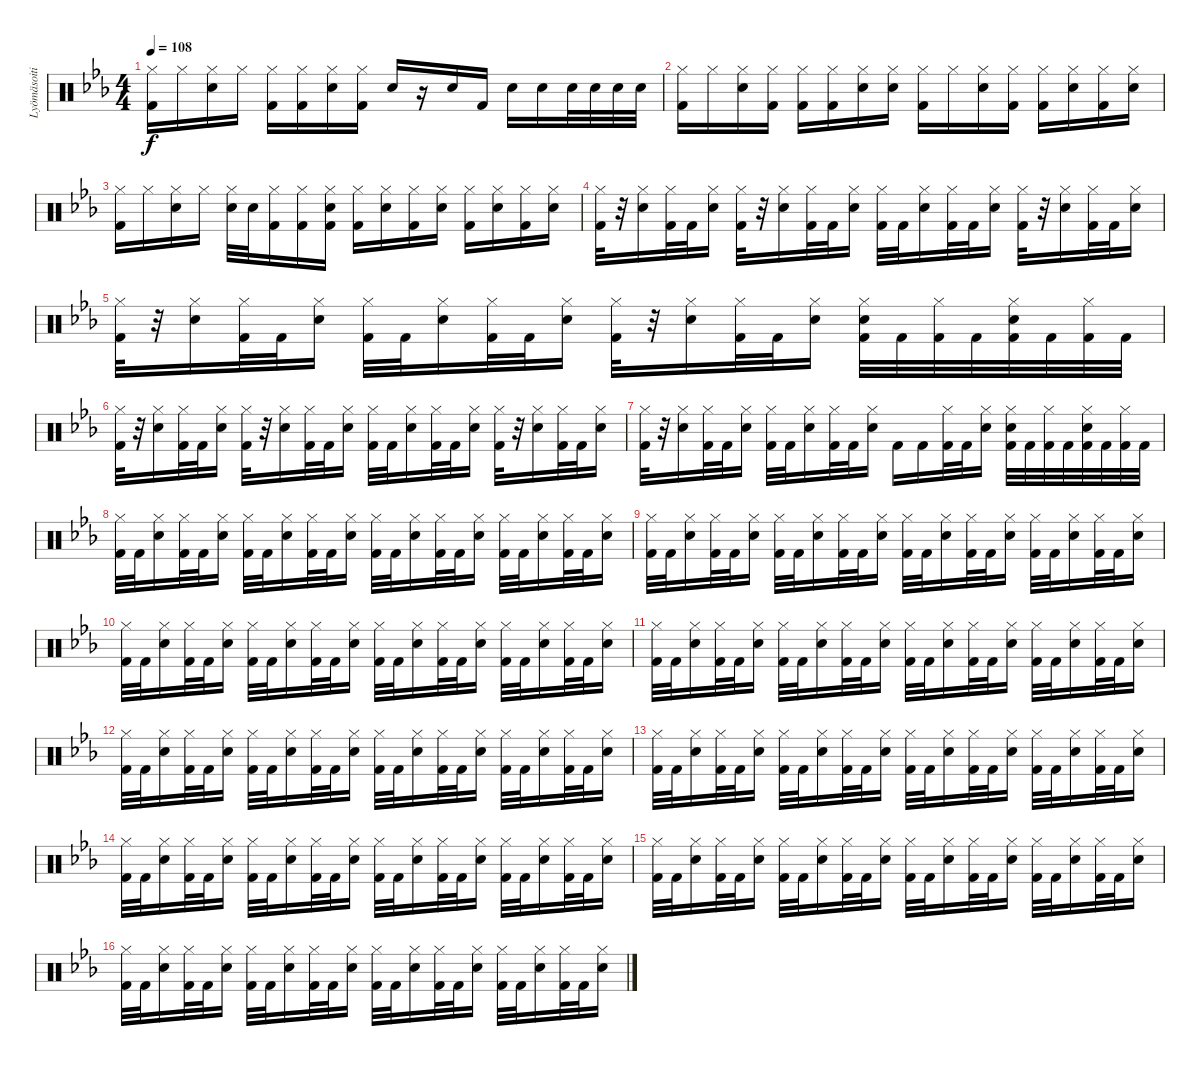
\track ("Lyömäsoitin" "Lyömäsoiti") {instrument percussion}
\staff {score}
\articulation defaults
\ts (4 4)
\tempo 108
\clef neutral
\ks cminor
("Hi-Hat (closed)" "Kick (hit) 2").16{dy f} "Hi-Hat (closed)".16 ("Hi-Hat (closed)" "Electric Snare (hit)").16 "Hi-Hat (closed)".16 ("Hi-Hat (closed)" "Kick (hit) 2").16 ("Hi-Hat (closed)" "Kick (hit) 2").16 ("Hi-Hat (closed)" "Electric Snare (hit)").16 ("Hi-Hat (closed)" "Kick (hit) 2").16 "Electric Snare (hit)".16 r.16 "Electric Snare (hit)".16 "Kick (hit) 2".16 "Electric Snare (hit)".16 "Electric Snare (hit)".16 "Electric Snare (hit)".32 "Electric Snare (hit)".32 "Electric Snare (hit)".32 "Electric Snare (hit)".32 |
("Hi-Hat (closed)" "Kick (hit) 2").16 "Hi-Hat (closed)".16 ("Hi-Hat (closed)" "Electric Snare (hit)").16 ("Hi-Hat (closed)" "Kick (hit) 2").16 ("Hi-Hat (closed)" "Kick (hit) 2").16 ("Hi-Hat (closed)" "Kick (hit) 2").16 ("Hi-Hat (closed)" "Electric Snare (hit)").16 ("Hi-Hat (closed)" "Electric Snare (hit)").16 ("Hi-Hat (closed)" "Kick (hit) 2").16 "Hi-Hat (closed)".16 ("Hi-Hat (closed)" "Electric Snare (hit)").16 ("Hi-Hat (closed)" "Kick (hit) 2").16 ("Hi-Hat (closed)" "Kick (hit) 2").16 ("Hi-Hat (closed)" "Electric Snare (hit)").16 ("Hi-Hat (closed)" "Kick (hit) 2").16 ("Hi-Hat (closed)" "Electric Snare (hit)").16 |
("Hi-Hat (closed)" "Kick (hit) 2").16 "Hi-Hat (closed)".16 ("Hi-Hat (closed)" "Electric Snare (hit)").16 "Hi-Hat (closed)".16 ("Hi-Hat (closed)" "Electric Snare (hit)").32 "Electric Snare (hit)".32 ("Hi-Hat (closed)" "Kick (hit) 2").16 ("Hi-Hat (closed)" "Kick (hit) 2").16 ("Hi-Hat (closed)" "Electric Snare (hit)" "Kick (hit) 2").16 ("Hi-Hat (closed)" "Kick (hit) 2").16 ("Hi-Hat (closed)" "Electric Snare (hit)").16 ("Hi-Hat (closed)" "Kick (hit) 2").16 ("Hi-Hat (closed)" "Electric Snare (hit)").16 ("Hi-Hat (closed)" "Kick (hit) 2").16 ("Hi-Hat (closed)" "Electric Snare (hit)").16 ("Hi-Hat (closed)" "Kick (hit) 2").16 ("Hi-Hat (closed)" "Electric Snare (hit)").16 |
("Hi-Hat (closed)" "Kick (hit) 2").32 r.32 ("Hi-Hat (closed)" "Electric Snare (hit)").16 ("Hi-Hat (closed)" "Kick (hit) 2").32 "Kick (hit) 2".32 ("Hi-Hat (closed)" "Electric Snare (hit)").16 ("Hi-Hat (closed)" "Kick (hit) 2").32 r.32 ("Hi-Hat (closed)" "Electric Snare (hit)").16 ("Hi-Hat (closed)" "Kick (hit) 2").32 "Kick (hit) 2".32 ("Hi-Hat (closed)" "Electric Snare (hit)").16 ("Hi-Hat (closed)" "Kick (hit) 2").32 "Kick (hit) 2".32 ("Hi-Hat (closed)" "Electric Snare (hit)").16 ("Hi-Hat (closed)" "Kick (hit) 2").32 "Kick (hit) 2".32 ("Hi-Hat (closed)" "Electric Snare (hit)").16 ("Hi-Hat (closed)" "Kick (hit) 2").32 r.32 ("Hi-Hat (closed)" "Electric Snare (hit)").16 ("Hi-Hat (closed)" "Kick (hit) 2").32 "Kick (hit) 2".32 ("Hi-Hat (closed)" "Electric Snare (hit)").16 |
("Hi-Hat (closed)" "Kick (hit) 2").32 r.32 ("Hi-Hat (closed)" "Electric Snare (hit)").16 ("Hi-Hat (closed)" "Kick (hit) 2").32 "Kick (hit) 2".32 ("Hi-Hat (closed)" "Electric Snare (hit)").16 ("Hi-Hat (closed)" "Kick (hit) 2").32 "Kick (hit) 2".32 ("Hi-Hat (closed)" "Electric Snare (hit)").16 ("Hi-Hat (closed)" "Kick (hit) 2").32 "Kick (hit) 2".32 ("Hi-Hat (closed)" "Electric Snare (hit)").16 ("Hi-Hat (closed)" "Kick (hit) 2").32 r.32 ("Hi-Hat (closed)" "Electric Snare (hit)").16 ("Hi-Hat (closed)" "Kick (hit) 2").32 "Kick (hit) 2".32 ("Hi-Hat (closed)" "Electric Snare (hit)").16 ("Hi-Hat (closed)" "Electric Snare (hit)" "Kick (hit) 2").32 "Kick (hit) 2".32 ("Hi-Hat (closed)" "Kick (hit) 2").32 "Kick (hit) 2".32 ("Hi-Hat (closed)" "Electric Snare (hit)" "Kick (hit) 2").32 "Kick (hit) 2".32 ("Hi-Hat (closed)" "Kick (hit) 2").32 "Kick (hit) 2".32 |
("Hi-Hat (closed)" "Kick (hit) 2").32 r.32 ("Hi-Hat (closed)" "Electric Snare (hit)").16 ("Hi-Hat (closed)" "Kick (hit) 2").32 "Kick (hit) 2".32 ("Hi-Hat (closed)" "Electric Snare (hit)").16 ("Hi-Hat (closed)" "Kick (hit) 2").32 r.32 ("Hi-Hat (closed)" "Electric Snare (hit)").16 ("Hi-Hat (closed)" "Kick (hit) 2").32 "Kick (hit) 2".32 ("Hi-Hat (closed)" "Electric Snare (hit)").16 ("Hi-Hat (closed)" "Kick (hit) 2").32 "Kick (hit) 2".32 ("Hi-Hat (closed)" "Electric Snare (hit)").16 ("Hi-Hat (closed)" "Kick (hit) 2").32 "Kick (hit) 2".32 ("Hi-Hat (closed)" "Electric Snare (hit)").16 ("Hi-Hat (closed)" "Kick (hit) 2").32 r.32 ("Hi-Hat (closed)" "Electric Snare (hit)").16 ("Hi-Hat (closed)" "Kick (hit) 2").32 "Kick (hit) 2".32 ("Hi-Hat (closed)" "Electric Snare (hit)").16 |
("Hi-Hat (closed)" "Kick (hit) 2").32 r.32 ("Hi-Hat (closed)" "Electric Snare (hit)").16 ("Hi-Hat (closed)" "Kick (hit) 2").32 "Kick (hit) 2".32 ("Hi-Hat (closed)" "Electric Snare (hit)").16 ("Hi-Hat (closed)" "Kick (hit) 2").32 "Kick (hit) 2".32 ("Hi-Hat (closed)" "Electric Snare (hit)").16 ("Hi-Hat (closed)" "Kick (hit) 2").32 "Kick (hit) 2".32 ("Hi-Hat (closed)" "Electric Snare (hit)").16 "Kick (hit) 2".16 "Kick (hit) 2".16 ("Hi-Hat (closed)" "Kick (hit) 2").32 "Kick (hit) 2".32 ("Hi-Hat (closed)" "Electric Snare (hit)").16 ("Hi-Hat (closed)" "Electric Snare (hit)" "Kick (hit) 2").32 "Kick (hit) 2".32 ("Hi-Hat (closed)" "Kick (hit) 2").32 "Kick (hit) 2".32 ("Hi-Hat (closed)" "Electric Snare (hit)" "Kick (hit) 2").32 "Kick (hit) 2".32 ("Hi-Hat (closed)" "Kick (hit) 2").32 "Kick (hit) 2".32 |
("Hi-Hat (closed)" "Kick (hit) 2").32 "Kick (hit) 2".32 ("Hi-Hat (closed)" "Electric Snare (hit)").16 ("Hi-Hat (closed)" "Kick (hit) 2").32 "Kick (hit) 2".32 ("Hi-Hat (closed)" "Electric Snare (hit)").16 ("Hi-Hat (closed)" "Kick (hit) 2").32 "Kick (hit) 2".32 ("Hi-Hat (closed)" "Electric Snare (hit)").16 ("Hi-Hat (closed)" "Kick (hit) 2").32 "Kick (hit) 2".32 ("Hi-Hat (closed)" "Electric Snare (hit)").16 ("Hi-Hat (closed)" "Kick (hit) 2").32 "Kick (hit) 2".32 ("Hi-Hat (closed)" "Electric Snare (hit)").16 ("Hi-Hat (closed)" "Kick (hit) 2").32 "Kick (hit) 2".32 ("Hi-Hat (closed)" "Electric Snare (hit)").16 ("Hi-Hat (closed)" "Kick (hit) 2").32 "Kick (hit) 2".32 ("Hi-Hat (closed)" "Electric Snare (hit)").16 ("Hi-Hat (closed)" "Kick (hit) 2").32 "Kick (hit) 2".32 ("Hi-Hat (closed)" "Electric Snare (hit)").16 |
("Hi-Hat (closed)" "Kick (hit) 2").32 "Kick (hit) 2".32 ("Hi-Hat (closed)" "Electric Snare (hit)").16 ("Hi-Hat (closed)" "Kick (hit) 2").32 "Kick (hit) 2".32 ("Hi-Hat (closed)" "Electric Snare (hit)").16 ("Hi-Hat (closed)" "Kick (hit) 2").32 "Kick (hit) 2".32 ("Hi-Hat (closed)" "Electric Snare (hit)").16 ("Hi-Hat (closed)" "Kick (hit) 2").32 "Kick (hit) 2".32 ("Hi-Hat (closed)" "Electric Snare (hit)").16 ("Hi-Hat (closed)" "Kick (hit) 2").32 "Kick (hit) 2".32 ("Hi-Hat (closed)" "Electric Snare (hit)").16 ("Hi-Hat (closed)" "Kick (hit) 2").32 "Kick (hit) 2".32 ("Hi-Hat (closed)" "Electric Snare (hit)").16 ("Hi-Hat (closed)" "Kick (hit) 2").32 "Kick (hit) 2".32 ("Hi-Hat (closed)" "Electric Snare (hit)").16 ("Hi-Hat (closed)" "Kick (hit) 2").32 "Kick (hit) 2".32 ("Hi-Hat (closed)" "Electric Snare (hit)").16 |
("Hi-Hat (closed)" "Kick (hit) 2").32 "Kick (hit) 2".32 ("Hi-Hat (closed)" "Electric Snare (hit)").16 ("Hi-Hat (closed)" "Kick (hit) 2").32 "Kick (hit) 2".32 ("Hi-Hat (closed)" "Electric Snare (hit)").16 ("Hi-Hat (closed)" "Kick (hit) 2").32 "Kick (hit) 2".32 ("Hi-Hat (closed)" "Electric Snare (hit)").16 ("Hi-Hat (closed)" "Kick (hit) 2").32 "Kick (hit) 2".32 ("Hi-Hat (closed)" "Electric Snare (hit)").16 ("Hi-Hat (closed)" "Kick (hit) 2").32 "Kick (hit) 2".32 ("Hi-Hat (closed)" "Electric Snare (hit)").16 ("Hi-Hat (closed)" "Kick (hit) 2").32 "Kick (hit) 2".32 ("Hi-Hat (closed)" "Electric Snare (hit)").16 ("Hi-Hat (closed)" "Kick (hit) 2").32 "Kick (hit) 2".32 ("Hi-Hat (closed)" "Electric Snare (hit)").16 ("Hi-Hat (closed)" "Kick (hit) 2").32 "Kick (hit) 2".32 ("Hi-Hat (closed)" "Electric Snare (hit)").16 |
("Hi-Hat (closed)" "Kick (hit) 2").32 "Kick (hit) 2".32 ("Hi-Hat (closed)" "Electric Snare (hit)").16 ("Hi-Hat (closed)" "Kick (hit) 2").32 "Kick (hit) 2".32 ("Hi-Hat (closed)" "Electric Snare (hit)").16 ("Hi-Hat (closed)" "Kick (hit) 2").32 "Kick (hit) 2".32 ("Hi-Hat (closed)" "Electric Snare (hit)").16 ("Hi-Hat (closed)" "Kick (hit) 2").32 "Kick (hit) 2".32 ("Hi-Hat (closed)" "Electric Snare (hit)").16 ("Hi-Hat (closed)" "Kick (hit) 2").32 "Kick (hit) 2".32 ("Hi-Hat (closed)" "Electric Snare (hit)").16 ("Hi-Hat (closed)" "Kick (hit) 2").32 "Kick (hit) 2".32 ("Hi-Hat (closed)" "Electric Snare (hit)").16 ("Hi-Hat (closed)" "Kick (hit) 2").32 "Kick (hit) 2".32 ("Hi-Hat (closed)" "Electric Snare (hit)").16 ("Hi-Hat (closed)" "Kick (hit) 2").32 "Kick (hit) 2".32 ("Hi-Hat (closed)" "Electric Snare (hit)").16 |
("Hi-Hat (closed)" "Kick (hit) 2").32 "Kick (hit) 2".32 ("Hi-Hat (closed)" "Electric Snare (hit)").16 ("Hi-Hat (closed)" "Kick (hit) 2").32 "Kick (hit) 2".32 ("Hi-Hat (closed)" "Electric Snare (hit)").16 ("Hi-Hat (closed)" "Kick (hit) 2").32 "Kick (hit) 2".32 ("Hi-Hat (closed)" "Electric Snare (hit)").16 ("Hi-Hat (closed)" "Kick (hit) 2").32 "Kick (hit) 2".32 ("Hi-Hat (closed)" "Electric Snare (hit)").16 ("Hi-Hat (closed)" "Kick (hit) 2").32 "Kick (hit) 2".32 ("Hi-Hat (closed)" "Electric Snare (hit)").16 ("Hi-Hat (closed)" "Kick (hit) 2").32 "Kick (hit) 2".32 ("Hi-Hat (closed)" "Electric Snare (hit)").16 ("Hi-Hat (closed)" "Kick (hit) 2").32 "Kick (hit) 2".32 ("Hi-Hat (closed)" "Electric Snare (hit)").16 ("Hi-Hat (closed)" "Kick (hit) 2").32 "Kick (hit) 2".32 ("Hi-Hat (closed)" "Electric Snare (hit)").16 |
("Hi-Hat (closed)" "Kick (hit) 2").32 "Kick (hit) 2".32 ("Hi-Hat (closed)" "Electric Snare (hit)").16 ("Hi-Hat (closed)" "Kick (hit) 2").32 "Kick (hit) 2".32 ("Hi-Hat (closed)" "Electric Snare (hit)").16 ("Hi-Hat (closed)" "Kick (hit) 2").32 "Kick (hit) 2".32 ("Hi-Hat (closed)" "Electric Snare (hit)").16 ("Hi-Hat (closed)" "Kick (hit) 2").32 "Kick (hit) 2".32 ("Hi-Hat (closed)" "Electric Snare (hit)").16 ("Hi-Hat (closed)" "Kick (hit) 2").32 "Kick (hit) 2".32 ("Hi-Hat (closed)" "Electric Snare (hit)").16 ("Hi-Hat (closed)" "Kick (hit) 2").32 "Kick (hit) 2".32 ("Hi-Hat (closed)" "Electric Snare (hit)").16 ("Hi-Hat (closed)" "Kick (hit) 2").32 "Kick (hit) 2".32 ("Hi-Hat (closed)" "Electric Snare (hit)").16 ("Hi-Hat (closed)" "Kick (hit) 2").32 "Kick (hit) 2".32 ("Hi-Hat (closed)" "Electric Snare (hit)").16 |
("Hi-Hat (closed)" "Kick (hit) 2").32 "Kick (hit) 2".32 ("Hi-Hat (closed)" "Electric Snare (hit)").16 ("Hi-Hat (closed)" "Kick (hit) 2").32 "Kick (hit) 2".32 ("Hi-Hat (closed)" "Electric Snare (hit)").16 ("Hi-Hat (closed)" "Kick (hit) 2").32 "Kick (hit) 2".32 ("Hi-Hat (closed)" "Electric Snare (hit)").16 ("Hi-Hat (closed)" "Kick (hit) 2").32 "Kick (hit) 2".32 ("Hi-Hat (closed)" "Electric Snare (hit)").16 ("Hi-Hat (closed)" "Kick (hit) 2").32 "Kick (hit) 2".32 ("Hi-Hat (closed)" "Electric Snare (hit)").16 ("Hi-Hat (closed)" "Kick (hit) 2").32 "Kick (hit) 2".32 ("Hi-Hat (closed)" "Electric Snare (hit)").16 ("Hi-Hat (closed)" "Kick (hit) 2").32 "Kick (hit) 2".32 ("Hi-Hat (closed)" "Electric Snare (hit)").16 ("Hi-Hat (closed)" "Kick (hit) 2").32 "Kick (hit) 2".32 ("Hi-Hat (closed)" "Electric Snare (hit)").16 |
("Hi-Hat (closed)" "Kick (hit) 2").32 "Kick (hit) 2".32 ("Hi-Hat (closed)" "Electric Snare (hit)").16 ("Hi-Hat (closed)" "Kick (hit) 2").32 "Kick (hit) 2".32 ("Hi-Hat (closed)" "Electric Snare (hit)").16 ("Hi-Hat (closed)" "Kick (hit) 2").32 "Kick (hit) 2".32 ("Hi-Hat (closed)" "Electric Snare (hit)").16 ("Hi-Hat (closed)" "Kick (hit) 2").32 "Kick (hit) 2".32 ("Hi-Hat (closed)" "Electric Snare (hit)").16 ("Hi-Hat (closed)" "Kick (hit) 2").32 "Kick (hit) 2".32 ("Hi-Hat (closed)" "Electric Snare (hit)").16 ("Hi-Hat (closed)" "Kick (hit) 2").32 "Kick (hit) 2".32 ("Hi-Hat (closed)" "Electric Snare (hit)").16 ("Hi-Hat (closed)" "Kick (hit) 2").32 "Kick (hit) 2".32 ("Hi-Hat (closed)" "Electric Snare (hit)").16 ("Hi-Hat (closed)" "Kick (hit) 2").32 "Kick (hit) 2".32 ("Hi-Hat (closed)" "Electric Snare (hit)").16 |
("Hi-Hat (closed)" "Kick (hit) 2").32 "Kick (hit) 2".32 ("Hi-Hat (closed)" "Electric Snare (hit)").16 ("Hi-Hat (closed)" "Kick (hit) 2").32 "Kick (hit) 2".32 ("Hi-Hat (closed)" "Electric Snare (hit)").16 ("Hi-Hat (closed)" "Kick (hit) 2").32 "Kick (hit) 2".32 ("Hi-Hat (closed)" "Electric Snare (hit)").16 ("Hi-Hat (closed)" "Kick (hit) 2").32 "Kick (hit) 2".32 ("Hi-Hat (closed)" "Electric Snare (hit)").16 ("Hi-Hat (closed)" "Kick (hit) 2").32 "Kick (hit) 2".32 ("Hi-Hat (closed)" "Electric Snare (hit)").16 ("Hi-Hat (closed)" "Kick (hit) 2").32 "Kick (hit) 2".32 ("Hi-Hat (closed)" "Electric Snare (hit)").16 ("Hi-Hat (closed)" "Kick (hit) 2").32 "Kick (hit) 2".32 ("Hi-Hat (closed)" "Electric Snare (hit)").16 ("Hi-Hat (closed)" "Kick (hit) 2").32 "Kick (hit) 2".32 ("Hi-Hat (closed)" "Electric Snare (hit)").16
